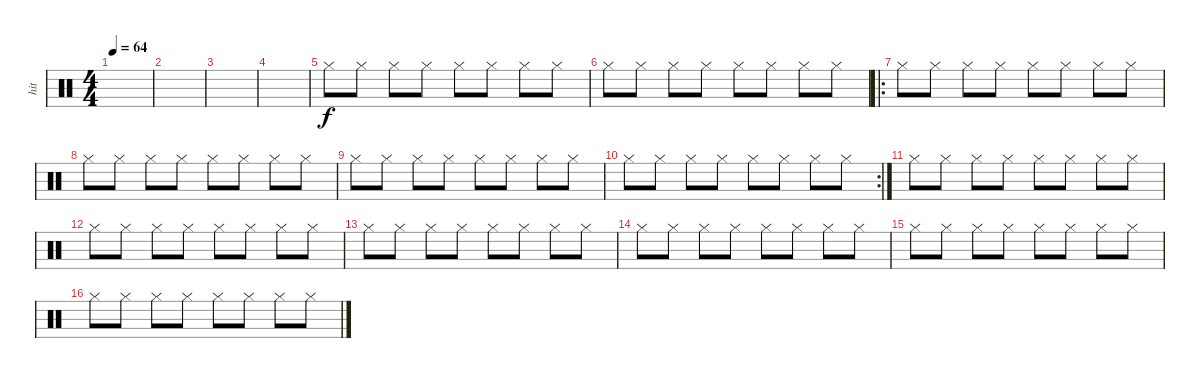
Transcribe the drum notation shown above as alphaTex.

\track ("hit" "hit") {instrument percussion}
\staff {score}
\articulation defaults
\ts (4 4)
\tempo 64
\clef neutral
\ks c
|
|
|
|
"Hi-Hat (closed)".8 "Hi-Hat (closed)".8 "Hi-Hat (closed)".8 "Hi-Hat (closed)".8 "Hi-Hat (closed)".8 "Hi-Hat (closed)".8 "Hi-Hat (closed)".8 "Hi-Hat (closed)".8 |
"Hi-Hat (closed)".8 "Hi-Hat (closed)".8 "Hi-Hat (closed)".8 "Hi-Hat (closed)".8 "Hi-Hat (closed)".8 "Hi-Hat (closed)".8 "Hi-Hat (closed)".8 "Hi-Hat (closed)".8 |
\ro "Hi-Hat (closed)".8 "Hi-Hat (closed)".8 "Hi-Hat (closed)".8 "Hi-Hat (closed)".8 "Hi-Hat (closed)".8 "Hi-Hat (closed)".8 "Hi-Hat (closed)".8 "Hi-Hat (closed)".8
|
"Hi-Hat (closed)".8 "Hi-Hat (closed)".8 "Hi-Hat (closed)".8 "Hi-Hat (closed)".8 "Hi-Hat (closed)".8 "Hi-Hat (closed)".8 "Hi-Hat (closed)".8 "Hi-Hat (closed)".8 |
"Hi-Hat (closed)".8 "Hi-Hat (closed)".8 "Hi-Hat (closed)".8 "Hi-Hat (closed)".8 "Hi-Hat (closed)".8 "Hi-Hat (closed)".8 "Hi-Hat (closed)".8 "Hi-Hat (closed)".8 |
\rc 2 "Hi-Hat (closed)".8 "Hi-Hat (closed)".8 "Hi-Hat (closed)".8 "Hi-Hat (closed)".8 "Hi-Hat (closed)".8 "Hi-Hat (closed)".8 "Hi-Hat (closed)".8 "Hi-Hat (closed)".8
|
"Hi-Hat (closed)".8 "Hi-Hat (closed)".8 "Hi-Hat (closed)".8 "Hi-Hat (closed)".8 "Hi-Hat (closed)".8 "Hi-Hat (closed)".8 "Hi-Hat (closed)".8 "Hi-Hat (closed)".8 |
"Hi-Hat (closed)".8 "Hi-Hat (closed)".8 "Hi-Hat (closed)".8 "Hi-Hat (closed)".8 "Hi-Hat (closed)".8 "Hi-Hat (closed)".8 "Hi-Hat (closed)".8 "Hi-Hat (closed)".8 |
"Hi-Hat (closed)".8 "Hi-Hat (closed)".8 "Hi-Hat (closed)".8 "Hi-Hat (closed)".8 "Hi-Hat (closed)".8 "Hi-Hat (closed)".8 "Hi-Hat (closed)".8 "Hi-Hat (closed)".8 |
"Hi-Hat (closed)".8 "Hi-Hat (closed)".8 "Hi-Hat (closed)".8 "Hi-Hat (closed)".8 "Hi-Hat (closed)".8 "Hi-Hat (closed)".8 "Hi-Hat (closed)".8 "Hi-Hat (closed)".8 |
"Hi-Hat (closed)".8 "Hi-Hat (closed)".8 "Hi-Hat (closed)".8 "Hi-Hat (closed)".8 "Hi-Hat (closed)".8 "Hi-Hat (closed)".8 "Hi-Hat (closed)".8 "Hi-Hat (closed)".8 |
"Hi-Hat (closed)".8 "Hi-Hat (closed)".8 "Hi-Hat (closed)".8 "Hi-Hat (closed)".8 "Hi-Hat (closed)".8 "Hi-Hat (closed)".8 "Hi-Hat (closed)".8 "Hi-Hat (closed)".8
